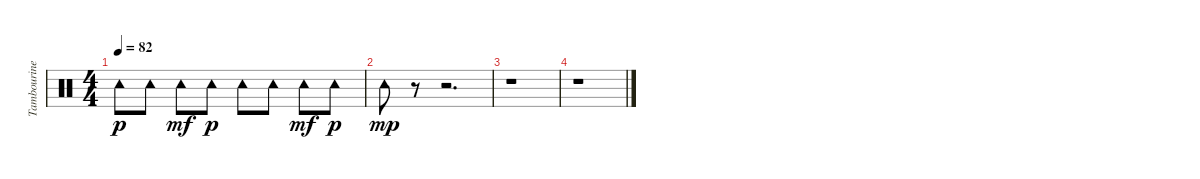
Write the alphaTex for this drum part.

\track ("Tambourine" "Tambourine") {instrument percussion}
\staff {score}
\articulation defaults
\ts (4 4)
\tempo 82
\clef neutral
\ks c "Tambourine (hit)".8{dy p} "Tambourine (hit)".8 "Tambourine (hit)".8{dy mf} "Tambourine (hit)".8{dy p} "Tambourine (hit)".8 "Tambourine (hit)".8 "Tambourine (hit)".8{dy mf} "Tambourine (hit)".8{dy p}
|
"Tambourine (hit)".8{dy mp} r.8 r.2{d} |
r.1 |
r.1
